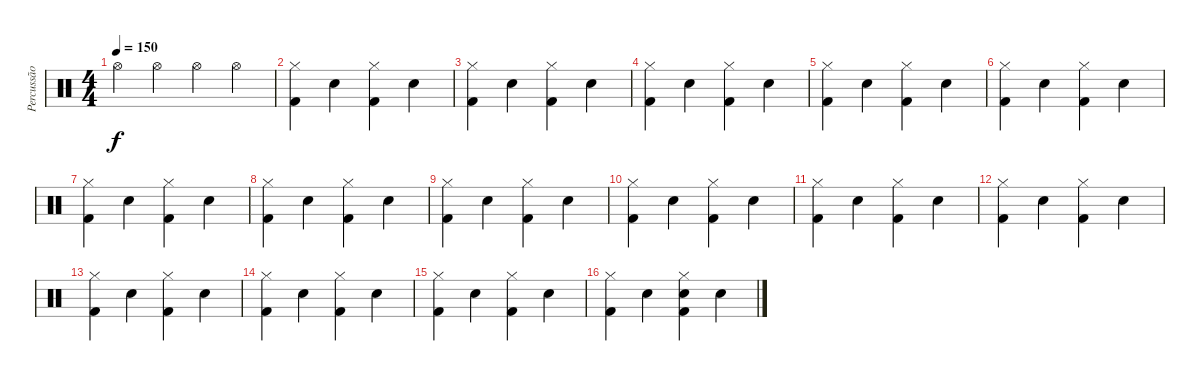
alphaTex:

\track ("Percussão" "Percussão") {instrument percussion}
\staff {score}
\articulation defaults
\ts (4 4)
\tempo 150
\clef neutral
\ks c "Hi-Hat (open)".4{dy f} "Hi-Hat (open)".4 "Hi-Hat (open)".4 "Hi-Hat (open)".4
|
("Hi-Hat (closed)" "Kick (hit) 2").4 "Snare (hit) 2".4 ("Hi-Hat (closed)" "Kick (hit) 2").4 "Snare (hit) 2".4 |
("Hi-Hat (closed)" "Kick (hit) 2").4 "Snare (hit) 2".4 ("Hi-Hat (closed)" "Kick (hit) 2").4 "Snare (hit) 2".4 |
("Hi-Hat (closed)" "Kick (hit) 2").4 "Snare (hit) 2".4 ("Hi-Hat (closed)" "Kick (hit) 2").4 "Snare (hit) 2".4 |
("Hi-Hat (closed)" "Kick (hit) 2").4 "Snare (hit) 2".4 ("Hi-Hat (closed)" "Kick (hit) 2").4 "Snare (hit) 2".4 |
("Hi-Hat (closed)" "Kick (hit) 2").4 "Snare (hit) 2".4 ("Hi-Hat (closed)" "Kick (hit) 2").4 "Snare (hit) 2".4 |
("Hi-Hat (closed)" "Kick (hit) 2").4 "Snare (hit) 2".4 ("Hi-Hat (closed)" "Kick (hit) 2").4 "Snare (hit) 2".4 |
("Hi-Hat (closed)" "Kick (hit) 2").4 "Snare (hit) 2".4 ("Hi-Hat (closed)" "Kick (hit) 2").4 "Snare (hit) 2".4 |
("Hi-Hat (closed)" "Kick (hit) 2").4 "Snare (hit) 2".4 ("Hi-Hat (closed)" "Kick (hit) 2").4 "Snare (hit) 2".4 |
("Hi-Hat (closed)" "Kick (hit) 2").4 "Snare (hit) 2".4 ("Hi-Hat (closed)" "Kick (hit) 2").4 "Snare (hit) 2".4 |
("Hi-Hat (closed)" "Kick (hit) 2").4 "Snare (hit) 2".4 ("Hi-Hat (closed)" "Kick (hit) 2").4 "Snare (hit) 2".4 |
("Hi-Hat (closed)" "Kick (hit) 2").4 "Snare (hit) 2".4 ("Hi-Hat (closed)" "Kick (hit) 2").4 "Snare (hit) 2".4 |
("Hi-Hat (closed)" "Kick (hit) 2").4 "Snare (hit) 2".4 ("Hi-Hat (closed)" "Kick (hit) 2").4 "Snare (hit) 2".4 |
("Hi-Hat (closed)" "Kick (hit) 2").4 "Snare (hit) 2".4 ("Hi-Hat (closed)" "Kick (hit) 2").4 "Snare (hit) 2".4 |
("Hi-Hat (closed)" "Kick (hit) 2").4 "Snare (hit) 2".4 ("Hi-Hat (closed)" "Kick (hit) 2").4 "Snare (hit) 2".4 |
("Hi-Hat (closed)" "Kick (hit) 2").4 "Snare (hit) 2".4 ("Hi-Hat (closed)" "Snare (hit) 2" "Kick (hit) 2").4 "Snare (hit) 2".4
